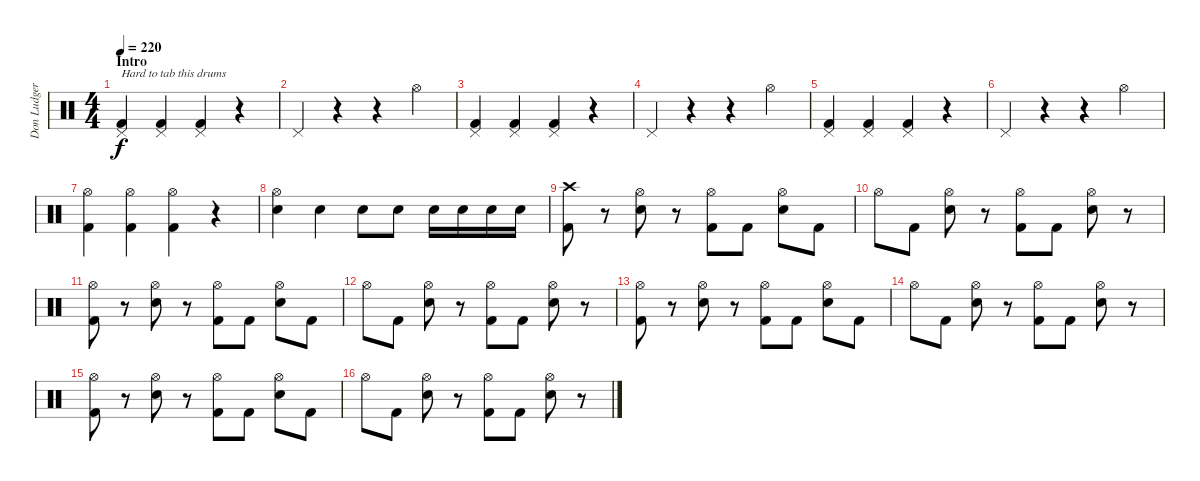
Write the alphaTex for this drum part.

\track ("Don Ludger" "Don Ludger") {instrument percussion}
\staff {score}
\articulation defaults
\ts (4 4)
\section ("" "Intro")
\tempo 220
\clef neutral
\ks c
("Pedal Hi-Hat (hit)" "Kick (hit) 2").4{txt "Hard to tab this drums" dy f} ("Pedal Hi-Hat (hit)" "Kick (hit) 2").4 ("Pedal Hi-Hat (hit)" "Kick (hit) 2").4 r.4 |
"Pedal Hi-Hat (hit)".4 r.4 r.4 "Hi-Hat (open)".4 |
("Pedal Hi-Hat (hit)" "Kick (hit) 2").4 ("Pedal Hi-Hat (hit)" "Kick (hit) 2").4 ("Pedal Hi-Hat (hit)" "Kick (hit) 2").4 r.4 |
"Pedal Hi-Hat (hit)".4 r.4 r.4 "Hi-Hat (open)".4 |
("Pedal Hi-Hat (hit)" "Kick (hit) 2").4 ("Pedal Hi-Hat (hit)" "Kick (hit) 2").4 ("Pedal Hi-Hat (hit)" "Kick (hit) 2").4 r.4 |
"Pedal Hi-Hat (hit)".4 r.4 r.4 "Hi-Hat (open)".4 |
("Hi-Hat (open)" "Kick (hit) 2").4 ("Hi-Hat (open)" "Kick (hit) 2").4 ("Hi-Hat (open)" "Kick (hit) 2").4 r.4 |
("Hi-Hat (open)" "Electric Snare (hit)").4 "Electric Snare (hit)".4 "Electric Snare (hit)".8 "Electric Snare (hit)".8 "Electric Snare (hit)".16 "Electric Snare (hit)".16 "Electric Snare (hit)".16 "Electric Snare (hit)".16 |
("Crash high (hit)" "Kick (hit) 2").8 r.8 ("Hi-Hat (open)" "Electric Snare (hit)").8 r.8 ("Hi-Hat (open)" "Kick (hit) 2").8 "Kick (hit) 2".8 ("Hi-Hat (open)" "Electric Snare (hit)").8 "Kick (hit) 2".8 |
"Hi-Hat (open)".8 "Kick (hit) 2".8 ("Hi-Hat (open)" "Electric Snare (hit)").8 r.8 ("Hi-Hat (open)" "Kick (hit) 2").8 "Kick (hit) 2".8 ("Hi-Hat (open)" "Electric Snare (hit)").8 r.8 |
("Hi-Hat (open)" "Kick (hit) 2").8 r.8 ("Hi-Hat (open)" "Electric Snare (hit)").8 r.8 ("Hi-Hat (open)" "Kick (hit) 2").8 "Kick (hit) 2".8 ("Hi-Hat (open)" "Electric Snare (hit)").8 "Kick (hit) 2".8 |
"Hi-Hat (open)".8 "Kick (hit) 2".8 ("Hi-Hat (open)" "Electric Snare (hit)").8 r.8 ("Hi-Hat (open)" "Kick (hit) 2").8 "Kick (hit) 2".8 ("Hi-Hat (open)" "Electric Snare (hit)").8 r.8 |
("Hi-Hat (open)" "Kick (hit) 2").8 r.8 ("Hi-Hat (open)" "Electric Snare (hit)").8 r.8 ("Hi-Hat (open)" "Kick (hit) 2").8 "Kick (hit) 2".8 ("Hi-Hat (open)" "Electric Snare (hit)").8 "Kick (hit) 2".8 |
"Hi-Hat (open)".8 "Kick (hit) 2".8 ("Hi-Hat (open)" "Electric Snare (hit)").8 r.8 ("Hi-Hat (open)" "Kick (hit) 2").8 "Kick (hit) 2".8 ("Hi-Hat (open)" "Electric Snare (hit)").8 r.8 |
("Hi-Hat (open)" "Kick (hit) 2").8 r.8 ("Hi-Hat (open)" "Electric Snare (hit)").8 r.8 ("Hi-Hat (open)" "Kick (hit) 2").8 "Kick (hit) 2".8 ("Hi-Hat (open)" "Electric Snare (hit)").8 "Kick (hit) 2".8 |
"Hi-Hat (open)".8 "Kick (hit) 2".8 ("Hi-Hat (open)" "Electric Snare (hit)").8 r.8 ("Hi-Hat (open)" "Kick (hit) 2").8 "Kick (hit) 2".8 ("Hi-Hat (open)" "Electric Snare (hit)").8 r.8
